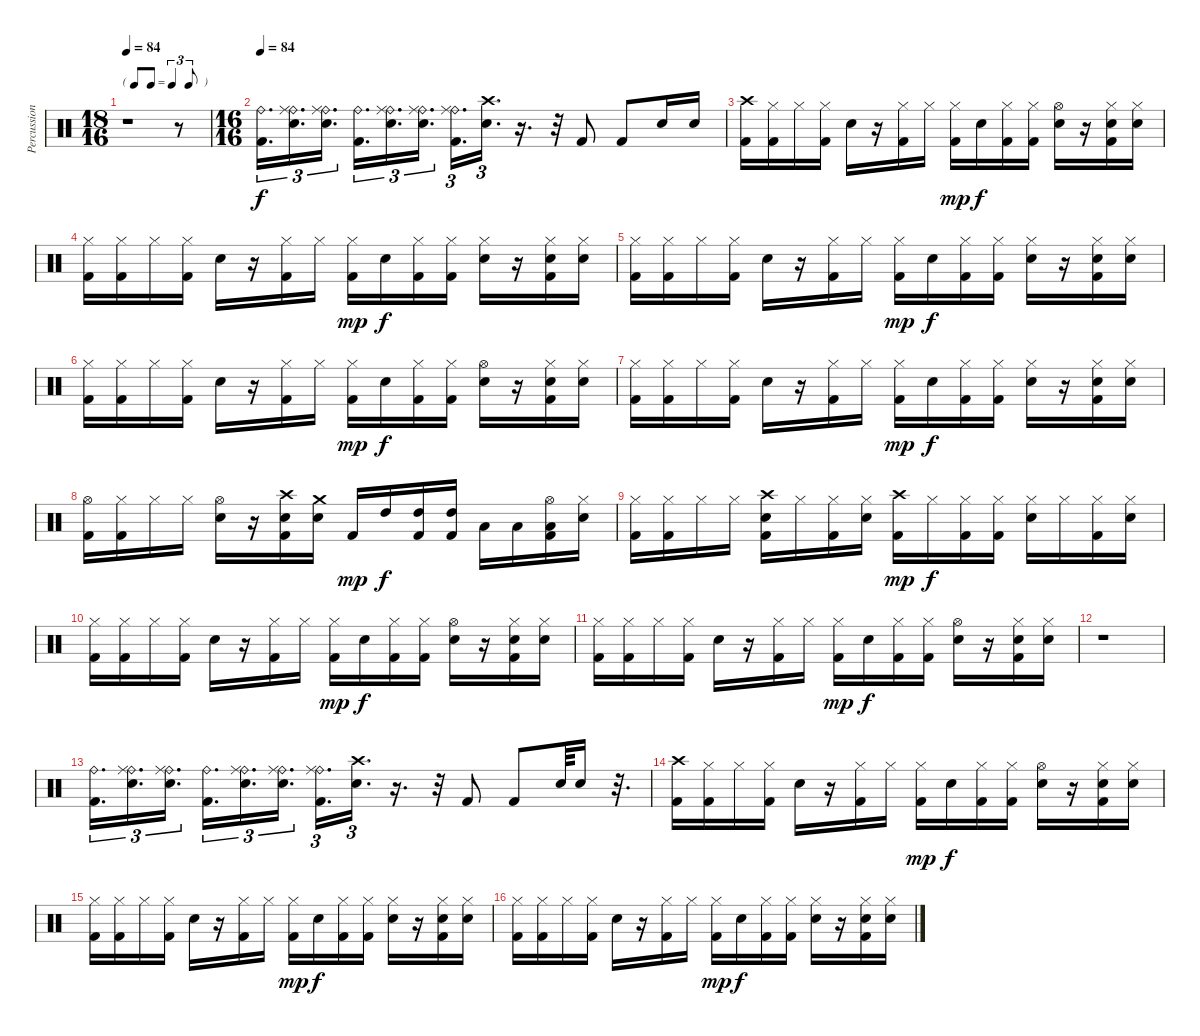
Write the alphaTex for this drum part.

\track ("Percussion" "Percussion") {instrument percussion}
\staff {score}
\articulation defaults
\ts (18 16)
\tf triplet8th
\tempo 84
\tempo 91
\tempo 84
\clef neutral
\ks c
r.1{dy f} r.8 |
\ts (16 16)
\tempo 84
("Ride (bell)" "Kick (hit) 2").16{d tu (3 2)} ("Ride (bell)" "Ride (middle)" "Electric Snare (hit)").16{d tu (3 2)} ("Ride (bell)" "Ride (middle)" "Electric Snare (hit)").16{d tu (3 2)} ("Ride (bell)" "Kick (hit) 2").16{d tu (3 2)} ("Ride (bell)" "Ride (middle)" "Electric Snare (hit)").16{d tu (3 2)} ("Ride (bell)" "Ride (middle)" "Electric Snare (hit)").16{d tu (3 2)} ("Ride (bell)" "Ride (middle)" "Kick (hit) 2").16{d tu (3 2)} ("Crash high (hit)" "Electric Snare (hit)").16{d tu (3 2)} r.16{d} r.32 "Kick (hit) 2".8 "Kick (hit) 2".8 "Electric Snare (hit)".16 "Electric Snare (hit)".16 |
("Crash high (hit)" "Kick (hit) 2").16 ("Hi-Hat (closed)" "Kick (hit) 2").16 "Hi-Hat (closed)".16 ("Hi-Hat (closed)" "Kick (hit) 2").16 "Electric Snare (hit)".16 r.16 ("Hi-Hat (closed)" "Kick (hit) 2").16 "Hi-Hat (closed)".16 ("Hi-Hat (closed)" "Kick (hit) 2").16{dy mp} "Electric Snare (hit)".16{dy f} ("Hi-Hat (closed)" "Kick (hit) 2").16 ("Hi-Hat (closed)" "Kick (hit) 2").16 ("Hi-Hat (open)" "Electric Snare (hit)").16 r.16 ("Hi-Hat (closed)" "Electric Snare (hit)" "Kick (hit) 2").16 ("Hi-Hat (closed)" "Electric Snare (hit)").16 |
("Hi-Hat (closed)" "Kick (hit) 2").16 ("Hi-Hat (closed)" "Kick (hit) 2").16 "Hi-Hat (closed)".16 ("Hi-Hat (closed)" "Kick (hit) 2").16 "Electric Snare (hit)".16 r.16 ("Hi-Hat (closed)" "Kick (hit) 2").16 "Hi-Hat (closed)".16 ("Hi-Hat (closed)" "Kick (hit) 2").16{dy mp} "Electric Snare (hit)".16{dy f} ("Hi-Hat (closed)" "Kick (hit) 2").16 ("Hi-Hat (closed)" "Kick (hit) 2").16 ("Hi-Hat (closed)" "Electric Snare (hit)").16 r.16 ("Hi-Hat (closed)" "Electric Snare (hit)" "Kick (hit) 2").16 ("Hi-Hat (closed)" "Electric Snare (hit)").16 |
("Hi-Hat (closed)" "Kick (hit) 2").16 ("Hi-Hat (closed)" "Kick (hit) 2").16 "Hi-Hat (closed)".16 ("Hi-Hat (closed)" "Kick (hit) 2").16 "Electric Snare (hit)".16 r.16 ("Hi-Hat (closed)" "Kick (hit) 2").16 "Hi-Hat (closed)".16 ("Hi-Hat (closed)" "Kick (hit) 2").16{dy mp} "Electric Snare (hit)".16{dy f} ("Hi-Hat (closed)" "Kick (hit) 2").16 ("Hi-Hat (closed)" "Kick (hit) 2").16 ("Hi-Hat (closed)" "Electric Snare (hit)").16 r.16 ("Hi-Hat (closed)" "Electric Snare (hit)" "Kick (hit) 2").16 ("Hi-Hat (closed)" "Electric Snare (hit)").16 |
("Hi-Hat (closed)" "Kick (hit) 2").16 ("Hi-Hat (closed)" "Kick (hit) 2").16 "Hi-Hat (closed)".16 ("Hi-Hat (closed)" "Kick (hit) 2").16 "Electric Snare (hit)".16 r.16 ("Hi-Hat (closed)" "Kick (hit) 2").16 "Hi-Hat (closed)".16 ("Hi-Hat (closed)" "Kick (hit) 2").16{dy mp} "Electric Snare (hit)".16{dy f} ("Hi-Hat (closed)" "Kick (hit) 2").16 ("Hi-Hat (closed)" "Kick (hit) 2").16 ("Hi-Hat (open)" "Electric Snare (hit)").16 r.16 ("Hi-Hat (closed)" "Electric Snare (hit)" "Kick (hit) 2").16 ("Hi-Hat (closed)" "Electric Snare (hit)").16 |
("Hi-Hat (closed)" "Kick (hit) 2").16 ("Hi-Hat (closed)" "Kick (hit) 2").16 "Hi-Hat (closed)".16 ("Hi-Hat (closed)" "Kick (hit) 2").16 "Electric Snare (hit)".16 r.16 ("Hi-Hat (closed)" "Kick (hit) 2").16 "Hi-Hat (closed)".16 ("Hi-Hat (closed)" "Kick (hit) 2").16{dy mp} "Electric Snare (hit)".16{dy f} ("Hi-Hat (closed)" "Kick (hit) 2").16 ("Hi-Hat (closed)" "Kick (hit) 2").16 ("Hi-Hat (closed)" "Electric Snare (hit)").16 r.16 ("Hi-Hat (closed)" "Electric Snare (hit)" "Kick (hit) 2").16 ("Hi-Hat (closed)" "Electric Snare (hit)").16 |
("Hi-Hat (open)" "Kick (hit) 2").16 ("Hi-Hat (closed)" "Kick (hit) 2").16 "Hi-Hat (closed)".16 "Hi-Hat (closed)".16 ("Hi-Hat (open)" "Electric Snare (hit)").16 r.16 ("Crash high (hit)" "Electric Snare (hit)" "Kick (hit) 2").16 ("Crash medium (hit)" "Electric Snare (hit)").16 "Kick (hit) 2".16{dy mp} "High Tom (hit)".16{dy f} ("High Tom (hit)" "Kick (hit) 2").16 ("High Tom (hit)" "Kick (hit) 2").16 "Low Tom (hit)".16 "Low Tom (hit)".16 ("Hi-Hat (open)" "Low Tom (hit)" "Kick (hit) 2").16 ("Hi-Hat (closed)" "Electric Snare (hit)").16 |
("Hi-Hat (closed)" "Kick (hit) 2").16 ("Hi-Hat (closed)" "Kick (hit) 2").16 "Hi-Hat (closed)".16 "Hi-Hat (closed)".16 ("Crash high (hit)" "Electric Snare (hit)" "Kick (hit) 2").16 "Hi-Hat (closed)".16 ("Hi-Hat (closed)" "Kick (hit) 2").16 ("Hi-Hat (closed)" "Electric Snare (hit)").16 ("Crash high (hit)" "Kick (hit) 2").16{dy mp} "Hi-Hat (closed)".16{dy f} ("Hi-Hat (closed)" "Kick (hit) 2").16 ("Hi-Hat (closed)" "Kick (hit) 2").16 ("Hi-Hat (closed)" "Electric Snare (hit)").16 "Hi-Hat (closed)".16 ("Hi-Hat (closed)" "Kick (hit) 2").16 ("Hi-Hat (closed)" "Electric Snare (hit)").16 |
("Hi-Hat (closed)" "Kick (hit) 2").16 ("Hi-Hat (closed)" "Kick (hit) 2").16 "Hi-Hat (closed)".16 ("Hi-Hat (closed)" "Kick (hit) 2").16 "Electric Snare (hit)".16 r.16 ("Hi-Hat (closed)" "Kick (hit) 2").16 "Hi-Hat (closed)".16 ("Hi-Hat (closed)" "Kick (hit) 2").16{dy mp} "Electric Snare (hit)".16{dy f} ("Hi-Hat (closed)" "Kick (hit) 2").16 ("Hi-Hat (closed)" "Kick (hit) 2").16 ("Hi-Hat (open)" "Electric Snare (hit)").16 r.16 ("Hi-Hat (closed)" "Electric Snare (hit)" "Kick (hit) 2").16 ("Hi-Hat (closed)" "Electric Snare (hit)").16 |
("Hi-Hat (closed)" "Kick (hit) 2").16 ("Hi-Hat (closed)" "Kick (hit) 2").16 "Hi-Hat (closed)".16 ("Hi-Hat (closed)" "Kick (hit) 2").16 "Electric Snare (hit)".16 r.16 ("Hi-Hat (closed)" "Kick (hit) 2").16 "Hi-Hat (closed)".16 ("Hi-Hat (closed)" "Kick (hit) 2").16{dy mp} "Electric Snare (hit)".16{dy f} ("Hi-Hat (closed)" "Kick (hit) 2").16 ("Hi-Hat (closed)" "Kick (hit) 2").16 ("Hi-Hat (open)" "Electric Snare (hit)").16 r.16 ("Hi-Hat (closed)" "Electric Snare (hit)" "Kick (hit) 2").16 ("Hi-Hat (closed)" "Electric Snare (hit)").16 |
r.1 |
("Ride (bell)" "Kick (hit) 2").16{d tu (3 2)} ("Ride (bell)" "Ride (middle)" "Electric Snare (hit)").16{d tu (3 2)} ("Ride (bell)" "Ride (middle)" "Electric Snare (hit)").16{d tu (3 2)} ("Ride (bell)" "Kick (hit) 2").16{d tu (3 2)} ("Ride (bell)" "Ride (middle)" "Electric Snare (hit)").16{d tu (3 2)} ("Ride (bell)" "Ride (middle)" "Electric Snare (hit)").16{d tu (3 2)} ("Ride (bell)" "Ride (middle)" "Kick (hit) 2").16{d tu (3 2)} ("Crash high (hit)" "Electric Snare (hit)").16{d tu (3 2)} r.16{d} r.32 "Kick (hit) 2".8 "Kick (hit) 2".8 "Electric Snare (hit)".64 "Electric Snare (hit)".16 r.32{d} |
("Crash high (hit)" "Kick (hit) 2").16 ("Hi-Hat (closed)" "Kick (hit) 2").16 "Hi-Hat (closed)".16 ("Hi-Hat (closed)" "Kick (hit) 2").16 "Electric Snare (hit)".16 r.16 ("Hi-Hat (closed)" "Kick (hit) 2").16 "Hi-Hat (closed)".16 ("Hi-Hat (closed)" "Kick (hit) 2").16{dy mp} "Electric Snare (hit)".16{dy f} ("Hi-Hat (closed)" "Kick (hit) 2").16 ("Hi-Hat (closed)" "Kick (hit) 2").16 ("Hi-Hat (open)" "Electric Snare (hit)").16 r.16 ("Hi-Hat (closed)" "Electric Snare (hit)" "Kick (hit) 2").16 ("Hi-Hat (closed)" "Electric Snare (hit)").16 |
("Hi-Hat (closed)" "Kick (hit) 2").16 ("Hi-Hat (closed)" "Kick (hit) 2").16 "Hi-Hat (closed)".16 ("Hi-Hat (closed)" "Kick (hit) 2").16 "Electric Snare (hit)".16 r.16 ("Hi-Hat (closed)" "Kick (hit) 2").16 "Hi-Hat (closed)".16 ("Hi-Hat (closed)" "Kick (hit) 2").16{dy mp} "Electric Snare (hit)".16{dy f} ("Hi-Hat (closed)" "Kick (hit) 2").16 ("Hi-Hat (closed)" "Kick (hit) 2").16 ("Hi-Hat (closed)" "Electric Snare (hit)").16 r.16 ("Hi-Hat (closed)" "Electric Snare (hit)" "Kick (hit) 2").16 ("Hi-Hat (closed)" "Electric Snare (hit)").16 |
("Hi-Hat (closed)" "Kick (hit) 2").16 ("Hi-Hat (closed)" "Kick (hit) 2").16 "Hi-Hat (closed)".16 ("Hi-Hat (closed)" "Kick (hit) 2").16 "Electric Snare (hit)".16 r.16 ("Hi-Hat (closed)" "Kick (hit) 2").16 "Hi-Hat (closed)".16 ("Hi-Hat (closed)" "Kick (hit) 2").16{dy mp} "Electric Snare (hit)".16{dy f} ("Hi-Hat (closed)" "Kick (hit) 2").16 ("Hi-Hat (closed)" "Kick (hit) 2").16 ("Hi-Hat (closed)" "Electric Snare (hit)").16 r.16 ("Hi-Hat (closed)" "Electric Snare (hit)" "Kick (hit) 2").16 ("Hi-Hat (closed)" "Electric Snare (hit)").16
